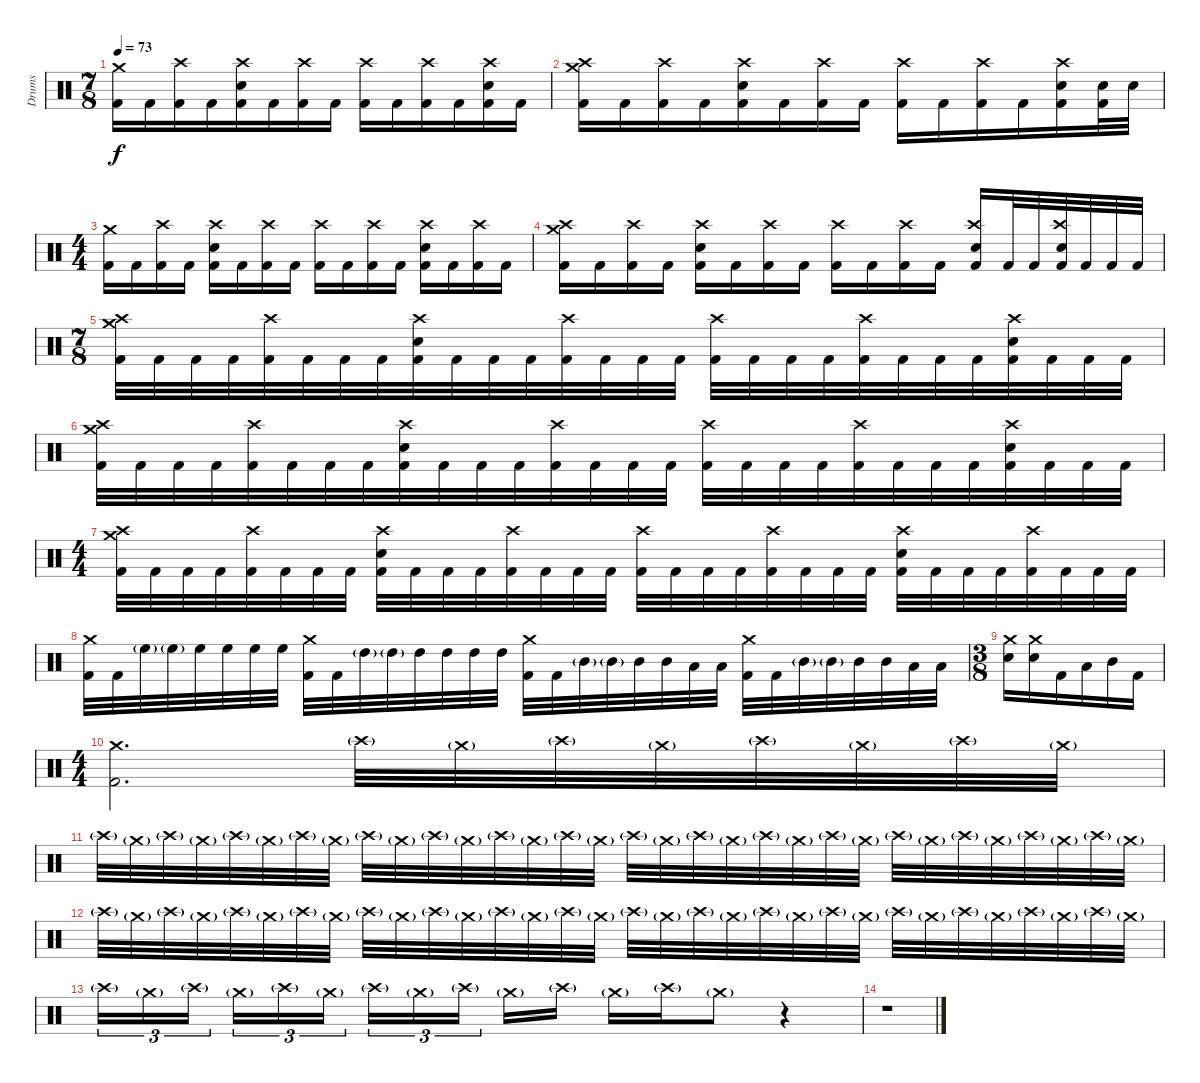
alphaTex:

\track ("Drums" "Drums") {instrument percussion}
\staff {score}
\articulation defaults
\ts (7 8)
\tempo 73
\clef neutral
\ks c
("Crash medium (hit)" "Kick (hit) 2").16{dy f} "Kick (hit) 2".16 ("Crash high (hit)" "Kick (hit) 2").16 "Kick (hit) 2".16 ("Crash high (hit)" "Snare (hit) 2" "Kick (hit) 2").16 "Kick (hit) 2".16 ("Crash high (hit)" "Kick (hit) 2").16 "Kick (hit) 2".16 ("Crash high (hit)" "Kick (hit) 2").16 "Kick (hit) 2".16 ("Crash high (hit)" "Kick (hit) 2").16 "Kick (hit) 2".16 ("Crash high (hit)" "Snare (hit) 2" "Kick (hit) 2").16 "Kick (hit) 2".16 |
("Crash medium (hit)" "Crash high (hit)" "Kick (hit) 2").16 "Kick (hit) 2".16 ("Crash high (hit)" "Kick (hit) 2").16 "Kick (hit) 2".16 ("Crash high (hit)" "Snare (hit) 2" "Kick (hit) 2").16 "Kick (hit) 2".16 ("Crash high (hit)" "Kick (hit) 2").16 "Kick (hit) 2".16 ("Crash high (hit)" "Kick (hit) 2").16 "Kick (hit) 2".16 ("Crash high (hit)" "Kick (hit) 2").16 "Kick (hit) 2".16 ("Crash high (hit)" "Snare (hit) 2" "Kick (hit) 2").16 ("Snare (hit) 2" "Kick (hit) 2").32 "Snare (hit) 2".32 |
\ts (4 4)
("Crash medium (hit)" "Kick (hit) 2").16 "Kick (hit) 2".16 ("Crash high (hit)" "Kick (hit) 2").16 "Kick (hit) 2".16 ("Crash high (hit)" "Snare (hit) 2" "Kick (hit) 2").16 "Kick (hit) 2".16 ("Crash high (hit)" "Kick (hit) 2").16 "Kick (hit) 2".16 ("Crash high (hit)" "Kick (hit) 2").16 "Kick (hit) 2".16 ("Crash high (hit)" "Kick (hit) 2").16 "Kick (hit) 2".16 ("Crash high (hit)" "Snare (hit) 2" "Kick (hit) 2").16 "Kick (hit) 2".16 ("Crash high (hit)" "Kick (hit) 2").16 "Kick (hit) 2".16 |
("Crash medium (hit)" "Crash high (hit)" "Kick (hit) 2").16 "Kick (hit) 2".16 ("Crash high (hit)" "Kick (hit) 2").16 "Kick (hit) 2".16 ("Crash high (hit)" "Snare (hit) 2" "Kick (hit) 2").16 "Kick (hit) 2".16 ("Crash high (hit)" "Kick (hit) 2").16 "Kick (hit) 2".16 ("Crash high (hit)" "Kick (hit) 2").16 "Kick (hit) 2".16 ("Crash high (hit)" "Kick (hit) 2").16 "Kick (hit) 2".16 ("Crash high (hit)" "Snare (hit) 2" "Kick (hit) 2").16 "Kick (hit) 2".32 "Kick (hit) 2".32 ("Crash high (hit)" "Snare (hit) 2" "Kick (hit) 2").32 "Kick (hit) 2".32 "Kick (hit) 2".32 "Kick (hit) 2".32 |
\ts (7 8)
("Crash medium (hit)" "Crash high (hit)" "Kick (hit) 2").32 "Kick (hit) 2".32 "Kick (hit) 2".32 "Kick (hit) 2".32 ("Crash high (hit)" "Kick (hit) 2").32 "Kick (hit) 2".32 "Kick (hit) 2".32 "Kick (hit) 2".32 ("Crash high (hit)" "Snare (hit) 2" "Kick (hit) 2").32 "Kick (hit) 2".32 "Kick (hit) 2".32 "Kick (hit) 2".32 ("Crash high (hit)" "Kick (hit) 2").32 "Kick (hit) 2".32 "Kick (hit) 2".32 "Kick (hit) 2".32 ("Crash high (hit)" "Kick (hit) 2").32 "Kick (hit) 2".32 "Kick (hit) 2".32 "Kick (hit) 2".32 ("Crash high (hit)" "Kick (hit) 2").32 "Kick (hit) 2".32 "Kick (hit) 2".32 "Kick (hit) 2".32 ("Crash high (hit)" "Snare (hit) 2" "Kick (hit) 2").32 "Kick (hit) 2".32 "Kick (hit) 2".32 "Kick (hit) 2".32 |
("Crash medium (hit)" "Crash high (hit)" "Kick (hit) 2").32 "Kick (hit) 2".32 "Kick (hit) 2".32 "Kick (hit) 2".32 ("Crash high (hit)" "Kick (hit) 2").32 "Kick (hit) 2".32 "Kick (hit) 2".32 "Kick (hit) 2".32 ("Crash high (hit)" "Snare (hit) 2" "Kick (hit) 2").32 "Kick (hit) 2".32 "Kick (hit) 2".32 "Kick (hit) 2".32 ("Crash high (hit)" "Kick (hit) 2").32 "Kick (hit) 2".32 "Kick (hit) 2".32 "Kick (hit) 2".32 ("Crash high (hit)" "Kick (hit) 2").32 "Kick (hit) 2".32 "Kick (hit) 2".32 "Kick (hit) 2".32 ("Crash high (hit)" "Kick (hit) 2").32 "Kick (hit) 2".32 "Kick (hit) 2".32 "Kick (hit) 2".32 ("Crash high (hit)" "Snare (hit) 2" "Kick (hit) 2").32 "Kick (hit) 2".32 "Kick (hit) 2".32 "Kick (hit) 2".32 |
\ts (4 4)
("Crash medium (hit)" "Crash high (hit)" "Kick (hit) 2").32 "Kick (hit) 2".32 "Kick (hit) 2".32 "Kick (hit) 2".32 ("Crash high (hit)" "Kick (hit) 2").32 "Kick (hit) 2".32 "Kick (hit) 2".32 "Kick (hit) 2".32 ("Crash high (hit)" "Snare (hit) 2" "Kick (hit) 2").32 "Kick (hit) 2".32 "Kick (hit) 2".32 "Kick (hit) 2".32 ("Crash high (hit)" "Kick (hit) 2").32 "Kick (hit) 2".32 "Kick (hit) 2".32 "Kick (hit) 2".32 ("Crash high (hit)" "Kick (hit) 2").32 "Kick (hit) 2".32 "Kick (hit) 2".32 "Kick (hit) 2".32 ("Crash high (hit)" "Kick (hit) 2").32 "Kick (hit) 2".32 "Kick (hit) 2".32 "Kick (hit) 2".32 ("Crash high (hit)" "Snare (hit) 2" "Kick (hit) 2").32 "Kick (hit) 2".32 "Kick (hit) 2".32 "Kick (hit) 2".32 ("Crash high (hit)" "Kick (hit) 2").32 "Kick (hit) 2".32 "Kick (hit) 2".32 "Kick (hit) 2".32 |
("Crash medium (hit)" "Kick (hit) 2").32 "Kick (hit) 2".32 "High Floor Tom (hit)"{g}.32 "High Floor Tom (hit)"{g}.32 "High Floor Tom (hit)".32 "High Floor Tom (hit)".32 "High Floor Tom (hit)".32 "High Floor Tom (hit)".32 ("Crash medium (hit)" "Kick (hit) 2").32 "Kick (hit) 2".32 "High Tom (hit)"{g}.32 "High Tom (hit)"{g}.32 "High Tom (hit)".32 "High Tom (hit)".32 "High Tom (hit)".32 "High Tom (hit)".32 ("Crash medium (hit)" "Kick (hit) 2").32 "Kick (hit) 2".32 "Mid Tom (hit)"{g}.32 "Mid Tom (hit)"{g}.32 "Mid Tom (hit)".32 "Mid Tom (hit)".32 "Low Tom (hit)".32 "Low Tom (hit)".32 ("Crash medium (hit)" "Kick (hit) 2").32 "Kick (hit) 2".32 "Mid Tom (hit)"{g}.32 "Mid Tom (hit)"{g}.32 "Mid Tom (hit)".32 "Mid Tom (hit)".32 "Low Tom (hit)".32 "Low Tom (hit)".32 |
\ts (3 8)
("Crash medium (hit)" "Snare (hit) 2").16 ("Crash medium (hit)" "Snare (hit) 2").16 "Kick (hit) 2".16 "Low Tom (hit)".16 "Mid Tom (hit)".16 "Kick (hit) 2".16 |
\ts (4 4)
("Crash medium (hit)" "Kick (hit) 2").2{d} "Crash high (hit)"{g}.32 "Crash medium (hit)"{g}.32 "Crash high (hit)"{g}.32 "Crash medium (hit)"{g}.32 "Crash high (hit)"{g}.32 "Crash medium (hit)"{g}.32 "Crash high (hit)"{g}.32 "Crash medium (hit)"{g}.32 |
"Crash high (hit)"{g}.32 "Crash medium (hit)"{g}.32 "Crash high (hit)"{g}.32 "Crash medium (hit)"{g}.32 "Crash high (hit)"{g}.32 "Crash medium (hit)"{g}.32 "Crash high (hit)"{g}.32 "Crash medium (hit)"{g}.32 "Crash high (hit)"{g}.32 "Crash medium (hit)"{g}.32 "Crash high (hit)"{g}.32 "Crash medium (hit)"{g}.32 "Crash high (hit)"{g}.32 "Crash medium (hit)"{g}.32 "Crash high (hit)"{g}.32 "Crash medium (hit)"{g}.32 "Crash high (hit)"{g}.32 "Crash medium (hit)"{g}.32 "Crash high (hit)"{g}.32 "Crash medium (hit)"{g}.32 "Crash high (hit)"{g}.32 "Crash medium (hit)"{g}.32 "Crash high (hit)"{g}.32 "Crash medium (hit)"{g}.32 "Crash high (hit)"{g}.32 "Crash medium (hit)"{g}.32 "Crash high (hit)"{g}.32 "Crash medium (hit)"{g}.32 "Crash high (hit)"{g}.32 "Crash medium (hit)"{g}.32 "Crash high (hit)"{g}.32 "Crash medium (hit)"{g}.32 |
"Crash high (hit)"{g}.32 "Crash medium (hit)"{g}.32 "Crash high (hit)"{g}.32 "Crash medium (hit)"{g}.32 "Crash high (hit)"{g}.32 "Crash medium (hit)"{g}.32 "Crash high (hit)"{g}.32 "Crash medium (hit)"{g}.32 "Crash high (hit)"{g}.32 "Crash medium (hit)"{g}.32 "Crash high (hit)"{g}.32 "Crash medium (hit)"{g}.32 "Crash high (hit)"{g}.32 "Crash medium (hit)"{g}.32 "Crash high (hit)"{g}.32 "Crash medium (hit)"{g}.32 "Crash high (hit)"{g}.32 "Crash medium (hit)"{g}.32 "Crash high (hit)"{g}.32 "Crash medium (hit)"{g}.32 "Crash high (hit)"{g}.32 "Crash medium (hit)"{g}.32 "Crash high (hit)"{g}.32 "Crash medium (hit)"{g}.32 "Crash high (hit)"{g}.32 "Crash medium (hit)"{g}.32 "Crash high (hit)"{g}.32 "Crash medium (hit)"{g}.32 "Crash high (hit)"{g}.32 "Crash medium (hit)"{g}.32 "Crash high (hit)"{g}.32 "Crash medium (hit)"{g}.32 |
"Crash high (hit)"{g}.16{tu (3 2)} "Crash medium (hit)"{g}.16{tu (3 2)} "Crash high (hit)"{g}.16{tu (3 2)} "Crash medium (hit)"{g}.16{tu (3 2)} "Crash high (hit)"{g}.16{tu (3 2)} "Crash medium (hit)"{g}.16{tu (3 2)} "Crash high (hit)"{g}.16{tu (3 2)} "Crash medium (hit)"{g}.16{tu (3 2)} "Crash high (hit)"{g}.16{tu (3 2)} "Crash medium (hit)"{g}.16 "Crash high (hit)"{g}.16 "Crash medium (hit)"{g}.16 "Crash high (hit)"{g}.16 "Crash medium (hit)"{g}.8 r.4 |
r.1
